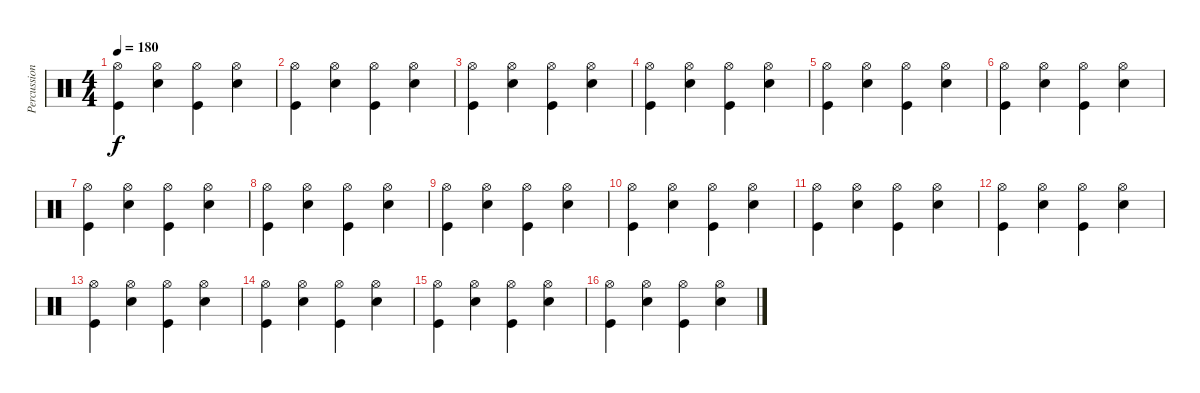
\track ("Percussions" "Percussion") {instrument percussion}
\staff {score}
\articulation defaults
\ts (4 4)
\tempo 180
\clef neutral
\ks c
("Kick (hit)" "Hi-Hat (open)").4{dy f} ("Electric Snare (hit)" "Hi-Hat (open)").4 ("Kick (hit)" "Hi-Hat (open)").4 ("Electric Snare (hit)" "Hi-Hat (open)").4 |
("Kick (hit)" "Hi-Hat (open)").4 ("Electric Snare (hit)" "Hi-Hat (open)").4 ("Kick (hit)" "Hi-Hat (open)").4 ("Electric Snare (hit)" "Hi-Hat (open)").4 |
("Kick (hit)" "Hi-Hat (open)").4 ("Electric Snare (hit)" "Hi-Hat (open)").4 ("Kick (hit)" "Hi-Hat (open)").4 ("Electric Snare (hit)" "Hi-Hat (open)").4 |
("Kick (hit)" "Hi-Hat (open)").4 ("Electric Snare (hit)" "Hi-Hat (open)").4 ("Kick (hit)" "Hi-Hat (open)").4 ("Electric Snare (hit)" "Hi-Hat (open)").4 |
("Kick (hit)" "Hi-Hat (open)").4 ("Electric Snare (hit)" "Hi-Hat (open)").4 ("Kick (hit)" "Hi-Hat (open)").4 ("Electric Snare (hit)" "Hi-Hat (open)").4 |
("Kick (hit)" "Hi-Hat (open)").4 ("Electric Snare (hit)" "Hi-Hat (open)").4 ("Kick (hit)" "Hi-Hat (open)").4 ("Electric Snare (hit)" "Hi-Hat (open)").4 |
("Kick (hit)" "Hi-Hat (open)").4 ("Electric Snare (hit)" "Hi-Hat (open)").4 ("Kick (hit)" "Hi-Hat (open)").4 ("Electric Snare (hit)" "Hi-Hat (open)").4 |
("Kick (hit)" "Hi-Hat (open)").4 ("Electric Snare (hit)" "Hi-Hat (open)").4 ("Kick (hit)" "Hi-Hat (open)").4 ("Electric Snare (hit)" "Hi-Hat (open)").4 |
("Kick (hit)" "Hi-Hat (open)").4 ("Electric Snare (hit)" "Hi-Hat (open)").4 ("Kick (hit)" "Hi-Hat (open)").4 ("Electric Snare (hit)" "Hi-Hat (open)").4 |
("Kick (hit)" "Hi-Hat (open)").4 ("Electric Snare (hit)" "Hi-Hat (open)").4 ("Kick (hit)" "Hi-Hat (open)").4 ("Electric Snare (hit)" "Hi-Hat (open)").4 |
("Kick (hit)" "Hi-Hat (open)").4 ("Electric Snare (hit)" "Hi-Hat (open)").4 ("Kick (hit)" "Hi-Hat (open)").4 ("Electric Snare (hit)" "Hi-Hat (open)").4 |
("Kick (hit)" "Hi-Hat (open)").4 ("Electric Snare (hit)" "Hi-Hat (open)").4 ("Kick (hit)" "Hi-Hat (open)").4 ("Electric Snare (hit)" "Hi-Hat (open)").4 |
("Kick (hit)" "Hi-Hat (open)").4 ("Electric Snare (hit)" "Hi-Hat (open)").4 ("Kick (hit)" "Hi-Hat (open)").4 ("Electric Snare (hit)" "Hi-Hat (open)").4 |
("Kick (hit)" "Hi-Hat (open)").4 ("Electric Snare (hit)" "Hi-Hat (open)").4 ("Kick (hit)" "Hi-Hat (open)").4 ("Electric Snare (hit)" "Hi-Hat (open)").4 |
("Kick (hit)" "Hi-Hat (open)").4 ("Electric Snare (hit)" "Hi-Hat (open)").4 ("Kick (hit)" "Hi-Hat (open)").4 ("Electric Snare (hit)" "Hi-Hat (open)").4 |
("Kick (hit)" "Hi-Hat (open)").4 ("Electric Snare (hit)" "Hi-Hat (open)").4 ("Kick (hit)" "Hi-Hat (open)").4 ("Electric Snare (hit)" "Hi-Hat (open)").4
